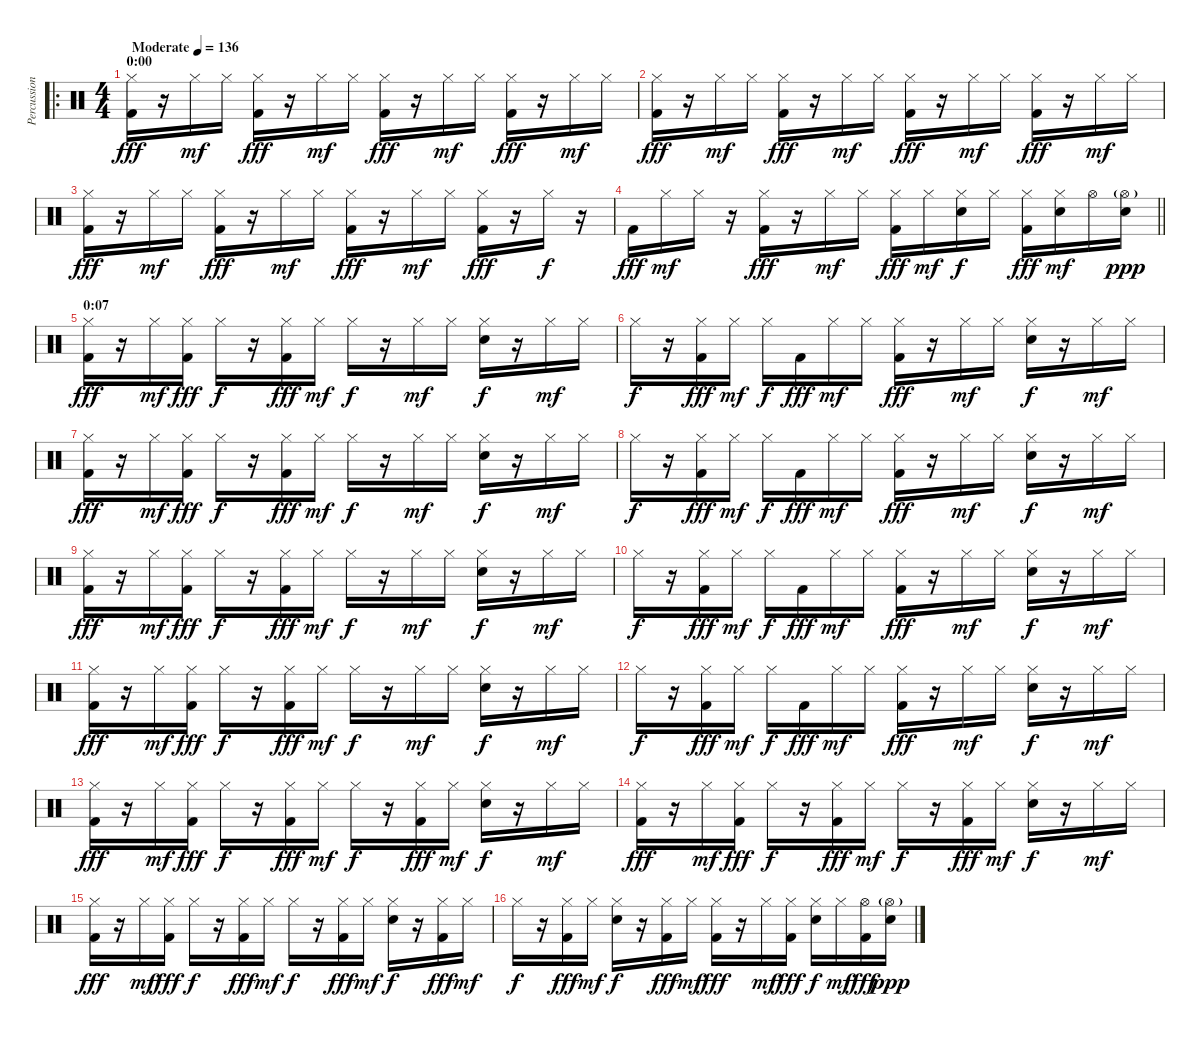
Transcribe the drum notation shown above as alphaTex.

\track ("Percussion" "Percussion") {instrument percussion}
\staff {score}
\articulation defaults
\ro
\ts (4 4)
\section ("" "0:00")
\tempo (136 "Moderate")
\clef neutral
\ks c
("Hi-Hat (closed)" "Kick (hit) 2").16{dy fff} r.16 "Hi-Hat (closed)".16{dy mf} "Hi-Hat (closed)".16 ("Hi-Hat (closed)" "Kick (hit) 2").16{dy fff} r.16 "Hi-Hat (closed)".16{dy mf} "Hi-Hat (closed)".16 ("Hi-Hat (closed)" "Kick (hit) 2").16{dy fff} r.16 "Hi-Hat (closed)".16{dy mf} "Hi-Hat (closed)".16 ("Hi-Hat (closed)" "Kick (hit) 2").16{dy fff} r.16 "Hi-Hat (closed)".16{dy mf} "Hi-Hat (closed)".16 |
("Hi-Hat (closed)" "Kick (hit) 2").16{dy fff} r.16 "Hi-Hat (closed)".16{dy mf} "Hi-Hat (closed)".16 ("Hi-Hat (closed)" "Kick (hit) 2").16{dy fff} r.16 "Hi-Hat (closed)".16{dy mf} "Hi-Hat (closed)".16 ("Hi-Hat (closed)" "Kick (hit) 2").16{dy fff} r.16 "Hi-Hat (closed)".16{dy mf} "Hi-Hat (closed)".16 ("Hi-Hat (closed)" "Kick (hit) 2").16{dy fff} r.16 "Hi-Hat (closed)".16{dy mf} "Hi-Hat (closed)".16 |
("Hi-Hat (closed)" "Kick (hit) 2").16{dy fff} r.16 "Hi-Hat (closed)".16{dy mf} "Hi-Hat (closed)".16 ("Hi-Hat (closed)" "Kick (hit) 2").16{dy fff} r.16 "Hi-Hat (closed)".16{dy mf} "Hi-Hat (closed)".16 ("Hi-Hat (closed)" "Kick (hit) 2").16{dy fff} r.16 "Hi-Hat (closed)".16{dy mf} "Hi-Hat (closed)".16 ("Hi-Hat (closed)" "Kick (hit) 2").16{dy fff} r.16 "Hi-Hat (closed)".16{dy f} r.16 |
\barLineRight lightlight "Kick (hit) 2".16{dy fff} "Hi-Hat (closed)".16{dy mf} "Hi-Hat (closed)".16
r.16 ("Hi-Hat (closed)" "Kick (hit) 2").16{dy fff} r.16 "Hi-Hat (closed)".16{dy mf} "Hi-Hat (closed)".16 ("Hi-Hat (closed)" "Kick (hit) 2").16{dy fff} "Hi-Hat (closed)".16{dy mf} ("Hi-Hat (closed)" "Electric Snare (hit)").16{dy f} "Hi-Hat (closed)".16 ("Hi-Hat (closed)" "Kick (hit) 2").16{dy fff} ("Hi-Hat (closed)" "Electric Snare (hit)").16{dy mf} "Hi-Hat (open)".16 ("Hi-Hat (open)"{g} "Electric Snare (hit)").16{dy ppp} |
\section ("" "0:07")
("Hi-Hat (closed)" "Kick (hit) 2").16{dy fff} r.16 "Hi-Hat (closed)".16{dy mf} ("Hi-Hat (closed)" "Kick (hit) 2").16{dy fff} "Hi-Hat (closed)".16{dy f} r.16 ("Hi-Hat (closed)" "Kick (hit) 2").16{dy fff} "Hi-Hat (closed)".16{dy mf} "Hi-Hat (closed)".16{dy f} r.16 "Hi-Hat (closed)".16{dy mf} "Hi-Hat (closed)".16 ("Hi-Hat (closed)" "Electric Snare (hit)").16{dy f} r.16 "Hi-Hat (closed)".16{dy mf} "Hi-Hat (closed)".16 |
"Hi-Hat (closed)".16{dy f} r.16 ("Hi-Hat (closed)" "Kick (hit) 2").16{dy fff} "Hi-Hat (closed)".16{dy mf} "Hi-Hat (closed)".16{dy f} "Kick (hit) 2".16{dy fff} "Hi-Hat (closed)".16{dy mf} "Hi-Hat (closed)".16 ("Hi-Hat (closed)" "Kick (hit) 2").16{dy fff} r.16 "Hi-Hat (closed)".16{dy mf} "Hi-Hat (closed)".16 ("Hi-Hat (closed)" "Electric Snare (hit)").16{dy f} r.16 "Hi-Hat (closed)".16{dy mf} "Hi-Hat (closed)".16 |
("Hi-Hat (closed)" "Kick (hit) 2").16{dy fff} r.16 "Hi-Hat (closed)".16{dy mf} ("Hi-Hat (closed)" "Kick (hit) 2").16{dy fff} "Hi-Hat (closed)".16{dy f} r.16 ("Hi-Hat (closed)" "Kick (hit) 2").16{dy fff} "Hi-Hat (closed)".16{dy mf} "Hi-Hat (closed)".16{dy f} r.16 "Hi-Hat (closed)".16{dy mf} "Hi-Hat (closed)".16 ("Hi-Hat (closed)" "Electric Snare (hit)").16{dy f} r.16 "Hi-Hat (closed)".16{dy mf} "Hi-Hat (closed)".16 |
"Hi-Hat (closed)".16{dy f} r.16 ("Hi-Hat (closed)" "Kick (hit) 2").16{dy fff} "Hi-Hat (closed)".16{dy mf} "Hi-Hat (closed)".16{dy f} "Kick (hit) 2".16{dy fff} "Hi-Hat (closed)".16{dy mf} "Hi-Hat (closed)".16 ("Hi-Hat (closed)" "Kick (hit) 2").16{dy fff} r.16 "Hi-Hat (closed)".16{dy mf} "Hi-Hat (closed)".16 ("Hi-Hat (closed)" "Electric Snare (hit)").16{dy f} r.16 "Hi-Hat (closed)".16{dy mf} "Hi-Hat (closed)".16 |
("Hi-Hat (closed)" "Kick (hit) 2").16{dy fff} r.16 "Hi-Hat (closed)".16{dy mf} ("Hi-Hat (closed)" "Kick (hit) 2").16{dy fff} "Hi-Hat (closed)".16{dy f} r.16 ("Hi-Hat (closed)" "Kick (hit) 2").16{dy fff} "Hi-Hat (closed)".16{dy mf} "Hi-Hat (closed)".16{dy f} r.16 "Hi-Hat (closed)".16{dy mf} "Hi-Hat (closed)".16 ("Hi-Hat (closed)" "Electric Snare (hit)").16{dy f} r.16 "Hi-Hat (closed)".16{dy mf} "Hi-Hat (closed)".16 |
"Hi-Hat (closed)".16{dy f} r.16 ("Hi-Hat (closed)" "Kick (hit) 2").16{dy fff} "Hi-Hat (closed)".16{dy mf} "Hi-Hat (closed)".16{dy f} "Kick (hit) 2".16{dy fff} "Hi-Hat (closed)".16{dy mf} "Hi-Hat (closed)".16 ("Hi-Hat (closed)" "Kick (hit) 2").16{dy fff} r.16 "Hi-Hat (closed)".16{dy mf} "Hi-Hat (closed)".16 ("Hi-Hat (closed)" "Electric Snare (hit)").16{dy f} r.16 "Hi-Hat (closed)".16{dy mf} "Hi-Hat (closed)".16 |
("Hi-Hat (closed)" "Kick (hit) 2").16{dy fff} r.16 "Hi-Hat (closed)".16{dy mf} ("Hi-Hat (closed)" "Kick (hit) 2").16{dy fff} "Hi-Hat (closed)".16{dy f} r.16 ("Hi-Hat (closed)" "Kick (hit) 2").16{dy fff} "Hi-Hat (closed)".16{dy mf} "Hi-Hat (closed)".16{dy f} r.16 "Hi-Hat (closed)".16{dy mf} "Hi-Hat (closed)".16 ("Hi-Hat (closed)" "Electric Snare (hit)").16{dy f} r.16 "Hi-Hat (closed)".16{dy mf} "Hi-Hat (closed)".16 |
"Hi-Hat (closed)".16{dy f} r.16 ("Hi-Hat (closed)" "Kick (hit) 2").16{dy fff} "Hi-Hat (closed)".16{dy mf} "Hi-Hat (closed)".16{dy f} "Kick (hit) 2".16{dy fff} "Hi-Hat (closed)".16{dy mf} "Hi-Hat (closed)".16 ("Hi-Hat (closed)" "Kick (hit) 2").16{dy fff} r.16 "Hi-Hat (closed)".16{dy mf} "Hi-Hat (closed)".16 ("Hi-Hat (closed)" "Electric Snare (hit)").16{dy f} r.16 "Hi-Hat (closed)".16{dy mf} "Hi-Hat (closed)".16 |
("Hi-Hat (closed)" "Kick (hit) 2").16{dy fff} r.16 "Hi-Hat (closed)".16{dy mf} ("Hi-Hat (closed)" "Kick (hit) 2").16{dy fff} "Hi-Hat (closed)".16{dy f} r.16 ("Hi-Hat (closed)" "Kick (hit) 2").16{dy fff} "Hi-Hat (closed)".16{dy mf} "Hi-Hat (closed)".16{dy f} r.16 ("Hi-Hat (closed)" "Kick (hit) 2").16{dy fff} "Hi-Hat (closed)".16{dy mf} ("Hi-Hat (closed)" "Electric Snare (hit)").16{dy f} r.16 "Hi-Hat (closed)".16{dy mf} "Hi-Hat (closed)".16 |
("Hi-Hat (closed)" "Kick (hit) 2").16{dy fff} r.16 "Hi-Hat (closed)".16{dy mf} ("Hi-Hat (closed)" "Kick (hit) 2").16{dy fff} "Hi-Hat (closed)".16{dy f} r.16 ("Hi-Hat (closed)" "Kick (hit) 2").16{dy fff} "Hi-Hat (closed)".16{dy mf} "Hi-Hat (closed)".16{dy f} r.16 ("Hi-Hat (closed)" "Kick (hit) 2").16{dy fff} "Hi-Hat (closed)".16{dy mf} ("Hi-Hat (closed)" "Electric Snare (hit)").16{dy f} r.16 "Hi-Hat (closed)".16{dy mf} "Hi-Hat (closed)".16 |
("Hi-Hat (closed)" "Kick (hit) 2").16{dy fff} r.16 "Hi-Hat (closed)".16{dy mf} ("Hi-Hat (closed)" "Kick (hit) 2").16{dy fff} "Hi-Hat (closed)".16{dy f} r.16 ("Hi-Hat (closed)" "Kick (hit) 2").16{dy fff} "Hi-Hat (closed)".16{dy mf} "Hi-Hat (closed)".16{dy f} r.16 ("Hi-Hat (closed)" "Kick (hit) 2").16{dy fff} "Hi-Hat (closed)".16{dy mf} ("Hi-Hat (closed)" "Electric Snare (hit)").16{dy f} r.16 ("Hi-Hat (closed)" "Kick (hit) 2").16{dy fff} "Hi-Hat (closed)".16{dy mf} |
"Hi-Hat (closed)".16{dy f} r.16 ("Hi-Hat (closed)" "Kick (hit) 2").16{dy fff} "Hi-Hat (closed)".16{dy mf} ("Hi-Hat (closed)" "Electric Snare (hit)").16{dy f} r.16 ("Hi-Hat (closed)" "Kick (hit) 2").16{dy fff} "Hi-Hat (closed)".16{dy mf} ("Hi-Hat (closed)" "Kick (hit) 2").16{dy fff} r.16 "Hi-Hat (closed)".16{dy mf} ("Hi-Hat (closed)" "Kick (hit) 2").16{dy fff} ("Hi-Hat (closed)" "Electric Snare (hit)").16{dy f} "Hi-Hat (closed)".16{dy mf} ("Hi-Hat (open)" "Kick (hit) 2").16{dy fff} ("Hi-Hat (open)"{g} "Electric Snare (hit)").16{dy ppp}
